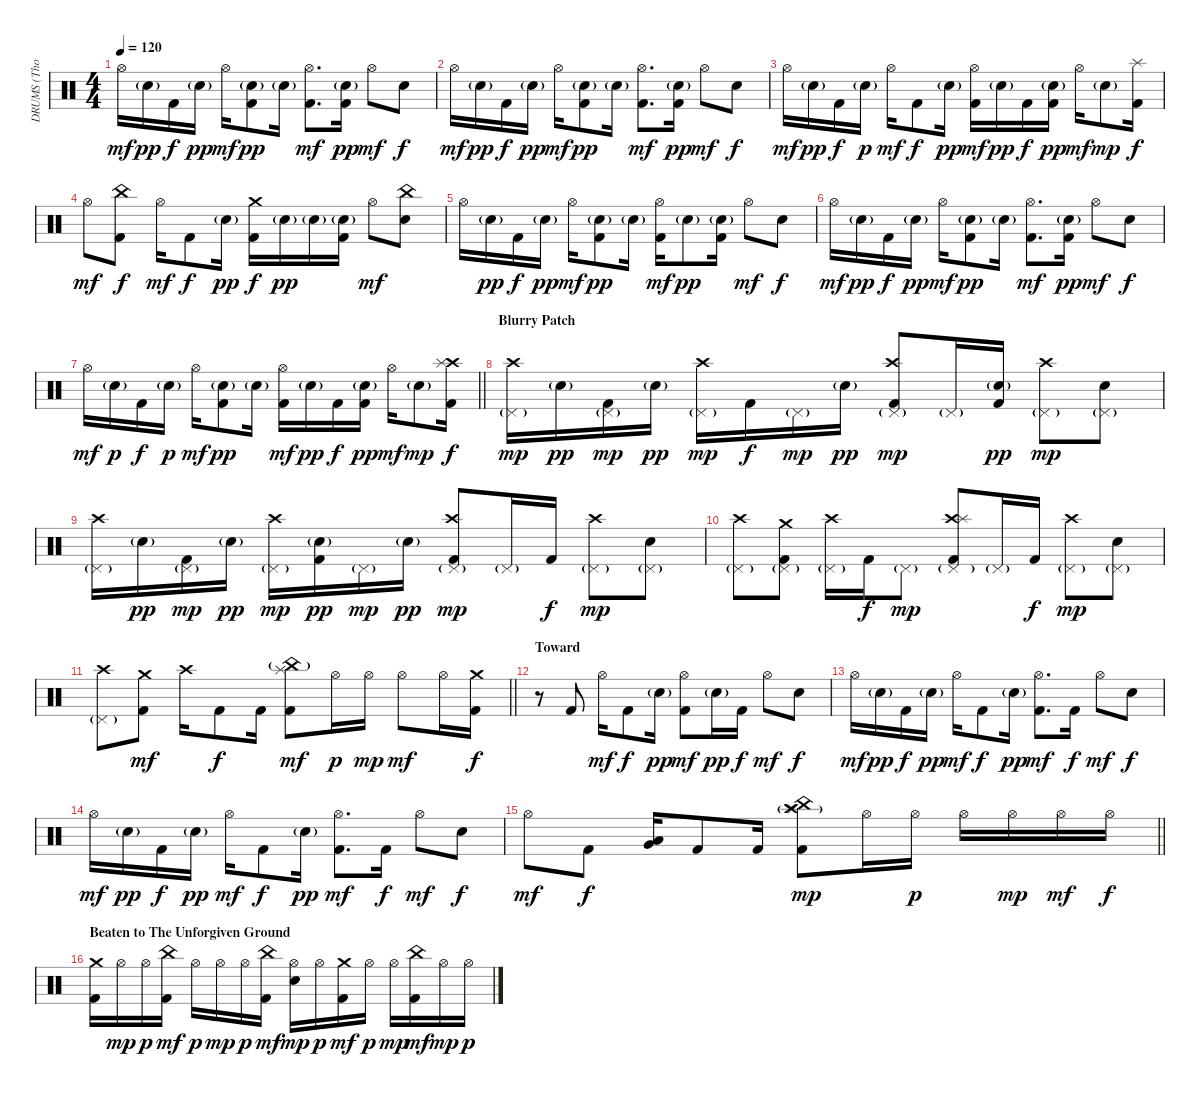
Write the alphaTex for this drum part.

\track ("DRUMS (Thomas Haake)" "DRUMS (Tho") {instrument percussion}
\staff {score}
\articulation defaults
\ts (4 4)
\tempo 120
\clef neutral
\ks c "Hi-Hat (open)".16{dy mf} "Electric Snare (hit)"{g}.16{dy pp} "Kick (hit) 2".16{dy f} "Electric Snare (hit)"{g}.16{dy pp} "Hi-Hat (open)".16{dy mf}
("Electric Snare (hit)"{g} "Kick (hit) 2").8{dy pp} "Electric Snare (hit)"{g}.16 ("Hi-Hat (open)" "Kick (hit) 2").8{d dy mf} ("Electric Snare (hit)"{g} "Kick (hit) 2").16{dy pp} "Hi-Hat (open)".8{dy mf} "Electric Snare (hit)".8{dy f} |
"Hi-Hat (open)".16{dy mf} "Electric Snare (hit)"{g}.16{dy pp} "Kick (hit) 2".16{dy f} "Electric Snare (hit)"{g}.16{dy pp} "Hi-Hat (open)".16{dy mf} ("Electric Snare (hit)"{g} "Kick (hit) 2").8{dy pp} "Electric Snare (hit)"{g}.16 ("Hi-Hat (open)" "Kick (hit) 2").8{d dy mf} ("Electric Snare (hit)"{g} "Kick (hit) 2").16{dy pp} "Hi-Hat (open)".8{dy mf} "Electric Snare (hit)".8{dy f} |
"Hi-Hat (open)".16{dy mf} "Electric Snare (hit)"{g}.16{dy pp} "Kick (hit) 2".16{dy f} "Electric Snare (hit)"{g}.16{dy p} "Hi-Hat (open)".16{dy mf} "Kick (hit) 2".8{dy f} "Electric Snare (hit)"{g}.16{dy pp} ("Hi-Hat (open)" "Kick (hit) 2").16{dy mf} "Electric Snare (hit)"{g}.16{dy pp} "Kick (hit) 2".16{dy f} ("Electric Snare (hit)"{g} "Kick (hit) 2").16{dy pp} "Hi-Hat (open)".16{dy mf} "Electric Snare (hit)"{g}.8{dy mp} ("Splash (hit)" "Kick (hit) 2").16{dy f} |
"Hi-Hat (open)".8{dy mf} ("China (hit)" "Kick (hit) 2").8{dy f} "Hi-Hat (open)".16{dy mf} "Kick (hit) 2".8{dy f} "Electric Snare (hit)"{g}.16{dy pp} ("Crash medium (hit)" "Kick (hit) 2").16{dy f} "Electric Snare (hit)"{g}.16{dy pp} "Electric Snare (hit)"{g}.16 ("Electric Snare (hit)"{g} "Kick (hit) 2").16 "Hi-Hat (open)".8{dy mf} ("China (hit)" "Electric Snare (hit)").8 |
"Hi-Hat (open)".16 "Electric Snare (hit)"{g}.16{dy pp} "Kick (hit) 2".16{dy f} "Electric Snare (hit)"{g}.16{dy pp} "Hi-Hat (open)".16{dy mf} ("Electric Snare (hit)"{g} "Kick (hit) 2").8{dy pp} "Electric Snare (hit)"{g}.16 ("Hi-Hat (open)" "Kick (hit) 2").16{dy mf} "Electric Snare (hit)"{g}.8{dy pp} ("Electric Snare (hit)"{g} "Kick (hit) 2").16 "Hi-Hat (open)".8{dy mf} "Electric Snare (hit)".8{dy f} |
"Hi-Hat (open)".16{dy mf} "Electric Snare (hit)"{g}.16{dy pp} "Kick (hit) 2".16{dy f} "Electric Snare (hit)"{g}.16{dy pp} "Hi-Hat (open)".16{dy mf} ("Electric Snare (hit)"{g} "Kick (hit) 2").8{dy pp} "Electric Snare (hit)"{g}.16 ("Hi-Hat (open)" "Kick (hit) 2").8{d dy mf} ("Electric Snare (hit)"{g} "Kick (hit) 2").16{dy pp} "Hi-Hat (open)".8{dy mf} "Electric Snare (hit)".8{dy f} |
\barLineRight lightlight "Hi-Hat (open)".16{dy mf} "Electric Snare (hit)"{g}.16{dy p} "Kick (hit) 2".16{dy f} "Electric Snare (hit)"{g}.16{dy p} "Hi-Hat (open)".16{dy mf}
("Electric Snare (hit)"{g} "Kick (hit) 2").8{dy pp} "Electric Snare (hit)"{g}.16 ("Hi-Hat (open)" "Kick (hit) 2").16{dy mf} "Electric Snare (hit)"{g}.16{dy pp} "Kick (hit) 2".16{dy f} ("Electric Snare (hit)"{g} "Kick (hit) 2").16{dy pp} "Hi-Hat (open)".16{dy mf} "Electric Snare (hit)"{g}.8{dy mp} ("Crash high (hit)" "Splash (hit)" "Kick (hit) 2").16{dy f} |
\section ("" "Blurry Patch")
("Crash high (hit)" "Pedal Hi-Hat (hit)"{g}).16{dy mp} "Electric Snare (hit)"{g}.16{dy pp} ("Pedal Hi-Hat (hit)"{g} "Kick (hit) 2").16{dy mp} "Electric Snare (hit)"{g}.16{dy pp} ("Crash high (hit)" "Pedal Hi-Hat (hit)"{g}).16{dy mp} "Kick (hit) 2".16{dy f} "Pedal Hi-Hat (hit)"{g}.16{dy mp} "Electric Snare (hit)"{g}.16{dy pp} ("Crash high (hit)" "Pedal Hi-Hat (hit)"{g} "Kick (hit) 2").8{dy mp} "Pedal Hi-Hat (hit)"{g}.16 ("Electric Snare (hit)"{g} "Kick (hit) 2").16{dy pp} ("Crash high (hit)" "Pedal Hi-Hat (hit)"{g}).8{dy mp} ("Pedal Hi-Hat (hit)"{g} "Electric Snare (hit)").8 |
("Crash high (hit)" "Pedal Hi-Hat (hit)"{g}).16 "Electric Snare (hit)"{g}.16{dy pp} ("Pedal Hi-Hat (hit)"{g} "Kick (hit) 2").16{dy mp} "Electric Snare (hit)"{g}.16{dy pp} ("Crash high (hit)" "Pedal Hi-Hat (hit)"{g}).16{dy mp} ("Electric Snare (hit)"{g} "Kick (hit) 2").16{dy pp} "Pedal Hi-Hat (hit)"{g}.16{dy mp} "Electric Snare (hit)"{g}.16{dy pp} ("Crash high (hit)" "Pedal Hi-Hat (hit)"{g} "Kick (hit) 2").8{dy mp} "Pedal Hi-Hat (hit)"{g}.16 "Kick (hit) 2".16{dy f} ("Crash high (hit)" "Pedal Hi-Hat (hit)"{g}).8{dy mp} ("Pedal Hi-Hat (hit)"{g} "Electric Snare (hit)").8 |
("Crash high (hit)" "Pedal Hi-Hat (hit)"{g}).8 ("Crash medium (hit)" "Pedal Hi-Hat (hit)"{g} "Kick (hit) 2").8 ("Crash high (hit)" "Pedal Hi-Hat (hit)"{g}).16 "Kick (hit) 2".16{dy f} "Pedal Hi-Hat (hit)"{g}.8{dy mp} ("Crash high (hit)" "Pedal Hi-Hat (hit)"{g} "Splash (hit)" "Kick (hit) 2").8 "Pedal Hi-Hat (hit)"{g}.16 "Kick (hit) 2".16{dy f} ("Crash high (hit)" "Pedal Hi-Hat (hit)"{g}).8{dy mp} ("Pedal Hi-Hat (hit)"{g} "Electric Snare (hit)").8 |
\barLineRight lightlight
("Crash high (hit)" "Pedal Hi-Hat (hit)"{g}).8 ("Crash medium (hit)" "Kick (hit) 2").8{dy mf} "Crash high (hit)".16 "Kick (hit) 2".8{dy f} "Kick (hit) 2".16 ("Splash (hit)" "China (hit)"{g} "Kick (hit) 2").8{dy mf} "Hi-Hat (open)".16{dy p} "Hi-Hat (open)".16{dy mp} "Hi-Hat (open)".8{dy mf} "Hi-Hat (open)".16 ("Crash medium (hit)" "Kick (hit) 2").16{dy f} |
\section ("" "Toward")
r.8 "Kick (hit) 2".8 "Hi-Hat (open)".16{dy mf} "Kick (hit) 2".8{dy f} "Electric Snare (hit)"{g}.16{dy pp} ("Hi-Hat (open)" "Kick (hit) 2").8{dy mf} "Electric Snare (hit)"{g}.16{dy pp} "Kick (hit) 2".16{dy f} "Hi-Hat (open)".8{dy mf} "Electric Snare (hit)".8{dy f} |
"Hi-Hat (open)".16{dy mf} "Electric Snare (hit)"{g}.16{dy pp} "Kick (hit) 2".16{dy f} "Electric Snare (hit)"{g}.16{dy pp} "Hi-Hat (open)".16{dy mf} "Kick (hit) 2".8{dy f} "Electric Snare (hit)"{g}.16{dy pp} ("Hi-Hat (open)" "Kick (hit) 2").8{d dy mf} "Kick (hit) 2".16{dy f} "Hi-Hat (open)".8{dy mf} "Electric Snare (hit)".8{dy f} |
"Hi-Hat (open)".16{dy mf} "Electric Snare (hit)"{g}.16{dy pp} "Kick (hit) 2".16{dy f} "Electric Snare (hit)"{g}.16{dy pp} "Hi-Hat (open)".16{dy mf} "Kick (hit) 2".8{dy f} "Electric Snare (hit)"{g}.16{dy pp} ("Hi-Hat (open)" "Kick (hit) 2").8{d dy mf} "Kick (hit) 2".16{dy f} "Hi-Hat (open)".8{dy mf} "Electric Snare (hit)".8{dy f} |
\barLineRight lightlight "Hi-Hat (open)".8{dy mf} "Kick (hit) 2".8{dy f}
("Very Low Tom (hit)" "Low Tom (hit)").16{bd 60} "Kick (hit) 2".8 "Kick (hit) 2".16 ("China (hit)" "Splash (hit)" "Crash high (hit)"{g} "Kick (hit) 2").8{dy mp} "Hi-Hat (open)".16 "Hi-Hat (open)".16{dy p} "Hi-Hat (open)".16 "Hi-Hat (open)".16{dy mp} "Hi-Hat (open)".16{dy mf} "Hi-Hat (open)".16{dy f} |
\section ("" "Beaten to The Unforgiven Ground")
("Crash medium (hit)" "Kick (hit) 2").16 "Hi-Hat (open)".16{dy mp} "Hi-Hat (open)".16{dy p} ("China (hit)" "Kick (hit) 2").16{dy mf} "Hi-Hat (open)".16{dy p} "Hi-Hat (open)".16{dy mp} "Hi-Hat (open)".16{dy p} ("China (hit)" "Kick (hit) 2").16{dy mf} ("Hi-Hat (open)" "Electric Snare (hit)").16{dy mp} "Hi-Hat (open)".16{dy p} ("Crash medium (hit)" "Kick (hit) 2").16{dy mf} "Hi-Hat (open)".16{dy p} "Hi-Hat (open)".16{dy mp} ("China (hit)" "Kick (hit) 2").16{dy mf} "Hi-Hat (open)".16{dy mp} "Hi-Hat (open)".16{dy p}
